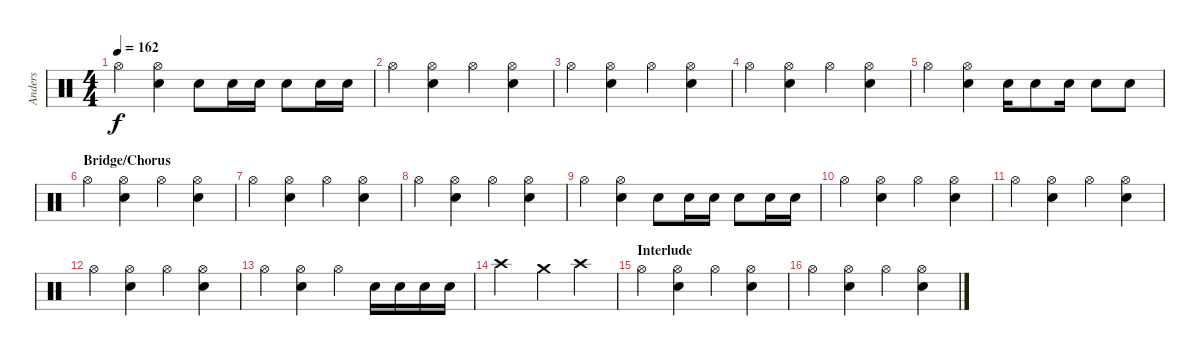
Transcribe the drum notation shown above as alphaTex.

\track ("Anders" "Anders") {instrument percussion}
\staff {score}
\articulation defaults
\ts (4 4)
\tempo 162
\clef neutral
\ks c "Hi-Hat (open)".4{dy f}
("Hi-Hat (open)" "Snare (hit) 2").4 "Snare (hit) 2".8 "Snare (hit) 2".16 "Snare (hit) 2".16 "Snare (hit) 2".8 "Snare (hit) 2".16 "Snare (hit) 2".16 |
"Hi-Hat (open)".4 ("Hi-Hat (open)" "Snare (hit) 2").4 "Hi-Hat (open)".4 ("Hi-Hat (open)" "Snare (hit) 2").4 |
"Hi-Hat (open)".4 ("Hi-Hat (open)" "Snare (hit) 2").4 "Hi-Hat (open)".4 ("Hi-Hat (open)" "Snare (hit) 2").4 |
"Hi-Hat (open)".4 ("Hi-Hat (open)" "Snare (hit) 2").4 "Hi-Hat (open)".4 ("Hi-Hat (open)" "Snare (hit) 2").4 |
"Hi-Hat (open)".4 ("Hi-Hat (open)" "Snare (hit) 2").4 "Snare (hit) 2".16 "Snare (hit) 2".8 "Snare (hit) 2".16 "Snare (hit) 2".8 "Snare (hit) 2".8 |
\section ("" "Bridge/Chorus")
"Hi-Hat (open)".4 ("Hi-Hat (open)" "Snare (hit) 2").4 "Hi-Hat (open)".4 ("Hi-Hat (open)" "Snare (hit) 2").4 |
"Hi-Hat (open)".4 ("Hi-Hat (open)" "Snare (hit) 2").4 "Hi-Hat (open)".4 ("Hi-Hat (open)" "Snare (hit) 2").4 |
"Hi-Hat (open)".4 ("Hi-Hat (open)" "Snare (hit) 2").4 "Hi-Hat (open)".4 ("Hi-Hat (open)" "Snare (hit) 2").4 |
"Hi-Hat (open)".4 ("Hi-Hat (open)" "Snare (hit) 2").4 "Snare (hit) 2".8 "Snare (hit) 2".16 "Snare (hit) 2".16 "Snare (hit) 2".8 "Snare (hit) 2".16 "Snare (hit) 2".16 |
"Hi-Hat (open)".4 ("Hi-Hat (open)" "Snare (hit) 2").4 "Hi-Hat (open)".4 ("Hi-Hat (open)" "Snare (hit) 2").4 |
"Hi-Hat (open)".4 ("Hi-Hat (open)" "Snare (hit) 2").4 "Hi-Hat (open)".4 ("Hi-Hat (open)" "Snare (hit) 2").4 |
"Hi-Hat (open)".4 ("Hi-Hat (open)" "Snare (hit) 2").4 "Hi-Hat (open)".4 ("Hi-Hat (open)" "Snare (hit) 2").4 |
"Hi-Hat (open)".4 ("Hi-Hat (open)" "Snare (hit) 2").4 "Hi-Hat (open)".4 "Snare (hit) 2".16 "Snare (hit) 2".16 "Snare (hit) 2".16 "Snare (hit) 2".16 |
"Crash high (hit)".2 "Crash medium (hit)".4 "Crash high (hit)".4 |
\section ("" "Interlude")
"Hi-Hat (open)".4 ("Hi-Hat (open)" "Snare (hit) 2").4 "Hi-Hat (open)".4 ("Hi-Hat (open)" "Snare (hit) 2").4 |
"Hi-Hat (open)".4 ("Hi-Hat (open)" "Snare (hit) 2").4 "Hi-Hat (open)".4 ("Hi-Hat (open)" "Snare (hit) 2").4
